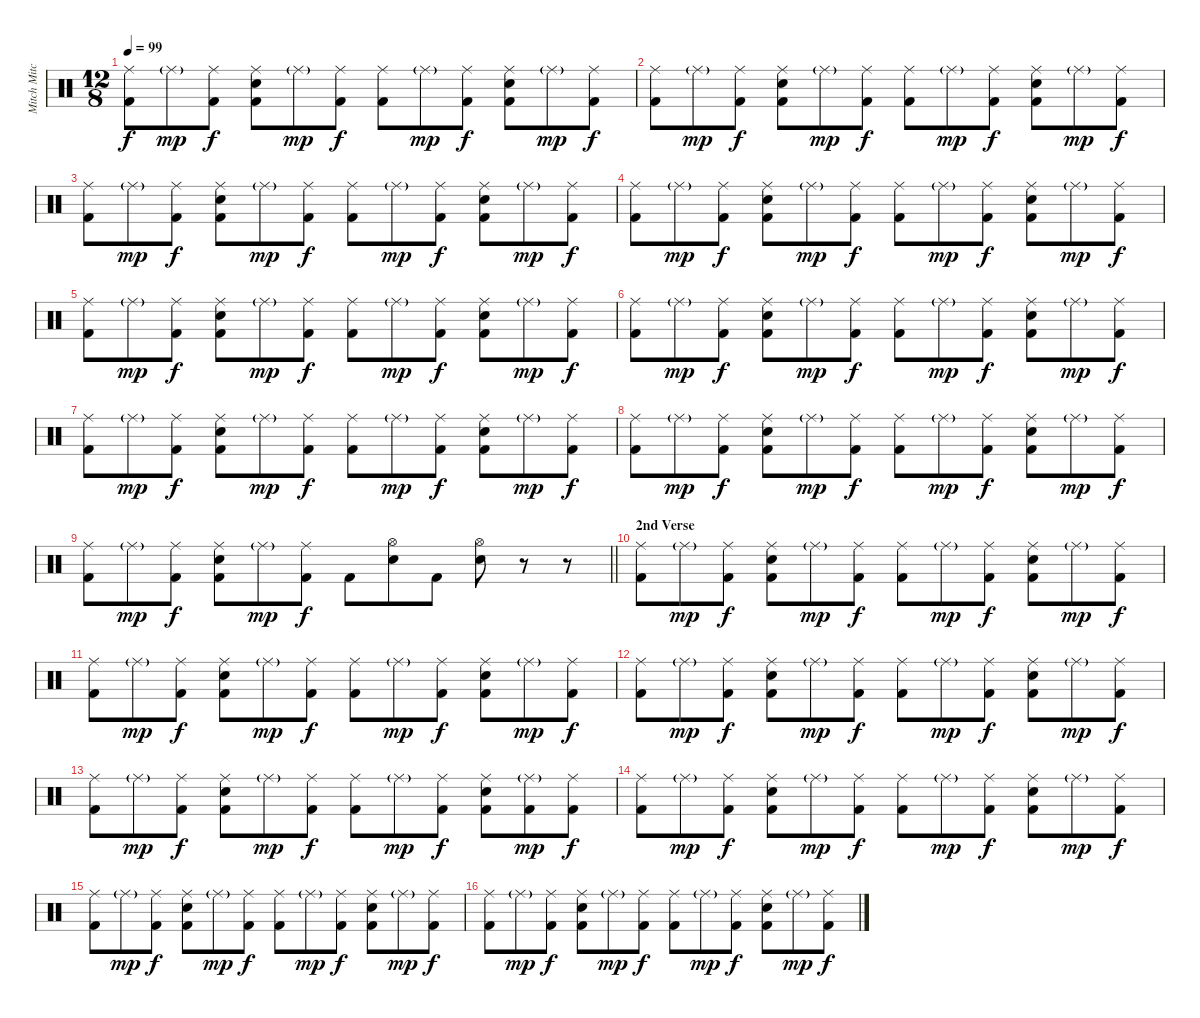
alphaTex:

\track ("Mitch Mitchell" "Mitch Mitc") {instrument percussion}
\staff {score}
\articulation defaults
\ts (12 8)
\tempo 99
\clef neutral
\ks c
("Ride (middle)" "Kick (hit) 2").8{dy f} "Ride (middle)"{g}.8{dy mp} ("Ride (middle)" "Kick (hit) 2").8{dy f} ("Ride (middle)" "Electric Snare (hit)" "Kick (hit) 2").8 "Ride (middle)"{g}.8{dy mp} ("Ride (middle)" "Kick (hit) 2").8{dy f} ("Ride (middle)" "Kick (hit) 2").8 "Ride (middle)"{g}.8{dy mp} ("Ride (middle)" "Kick (hit) 2").8{dy f} ("Ride (middle)" "Electric Snare (hit)" "Kick (hit) 2").8 "Ride (middle)"{g}.8{dy mp} ("Ride (middle)" "Kick (hit) 2").8{dy f} |
("Ride (middle)" "Kick (hit) 2").8 "Ride (middle)"{g}.8{dy mp} ("Ride (middle)" "Kick (hit) 2").8{dy f} ("Ride (middle)" "Electric Snare (hit)" "Kick (hit) 2").8 "Ride (middle)"{g}.8{dy mp} ("Ride (middle)" "Kick (hit) 2").8{dy f} ("Ride (middle)" "Kick (hit) 2").8 "Ride (middle)"{g}.8{dy mp} ("Ride (middle)" "Kick (hit) 2").8{dy f} ("Ride (middle)" "Electric Snare (hit)" "Kick (hit) 2").8 "Ride (middle)"{g}.8{dy mp} ("Ride (middle)" "Kick (hit) 2").8{dy f} |
("Ride (middle)" "Kick (hit) 2").8 "Ride (middle)"{g}.8{dy mp} ("Ride (middle)" "Kick (hit) 2").8{dy f} ("Ride (middle)" "Electric Snare (hit)" "Kick (hit) 2").8 "Ride (middle)"{g}.8{dy mp} ("Ride (middle)" "Kick (hit) 2").8{dy f} ("Ride (middle)" "Kick (hit) 2").8 "Ride (middle)"{g}.8{dy mp} ("Ride (middle)" "Kick (hit) 2").8{dy f} ("Ride (middle)" "Electric Snare (hit)" "Kick (hit) 2").8 "Ride (middle)"{g}.8{dy mp} ("Ride (middle)" "Kick (hit) 2").8{dy f} |
("Ride (middle)" "Kick (hit) 2").8 "Ride (middle)"{g}.8{dy mp} ("Ride (middle)" "Kick (hit) 2").8{dy f} ("Ride (middle)" "Electric Snare (hit)" "Kick (hit) 2").8 "Ride (middle)"{g}.8{dy mp} ("Ride (middle)" "Kick (hit) 2").8{dy f} ("Ride (middle)" "Kick (hit) 2").8 "Ride (middle)"{g}.8{dy mp} ("Ride (middle)" "Kick (hit) 2").8{dy f} ("Ride (middle)" "Electric Snare (hit)" "Kick (hit) 2").8 "Ride (middle)"{g}.8{dy mp} ("Ride (middle)" "Kick (hit) 2").8{dy f} |
("Ride (middle)" "Kick (hit) 2").8 "Ride (middle)"{g}.8{dy mp} ("Ride (middle)" "Kick (hit) 2").8{dy f} ("Ride (middle)" "Electric Snare (hit)" "Kick (hit) 2").8 "Ride (middle)"{g}.8{dy mp} ("Ride (middle)" "Kick (hit) 2").8{dy f} ("Ride (middle)" "Kick (hit) 2").8 "Ride (middle)"{g}.8{dy mp} ("Ride (middle)" "Kick (hit) 2").8{dy f} ("Ride (middle)" "Electric Snare (hit)" "Kick (hit) 2").8 "Ride (middle)"{g}.8{dy mp} ("Ride (middle)" "Kick (hit) 2").8{dy f} |
("Ride (middle)" "Kick (hit) 2").8 "Ride (middle)"{g}.8{dy mp} ("Ride (middle)" "Kick (hit) 2").8{dy f} ("Ride (middle)" "Electric Snare (hit)" "Kick (hit) 2").8 "Ride (middle)"{g}.8{dy mp} ("Ride (middle)" "Kick (hit) 2").8{dy f} ("Ride (middle)" "Kick (hit) 2").8 "Ride (middle)"{g}.8{dy mp} ("Ride (middle)" "Kick (hit) 2").8{dy f} ("Ride (middle)" "Electric Snare (hit)" "Kick (hit) 2").8 "Ride (middle)"{g}.8{dy mp} ("Ride (middle)" "Kick (hit) 2").8{dy f} |
("Ride (middle)" "Kick (hit) 2").8 "Ride (middle)"{g}.8{dy mp} ("Ride (middle)" "Kick (hit) 2").8{dy f} ("Ride (middle)" "Electric Snare (hit)" "Kick (hit) 2").8 "Ride (middle)"{g}.8{dy mp} ("Ride (middle)" "Kick (hit) 2").8{dy f} ("Ride (middle)" "Kick (hit) 2").8 "Ride (middle)"{g}.8{dy mp} ("Ride (middle)" "Kick (hit) 2").8{dy f} ("Ride (middle)" "Electric Snare (hit)" "Kick (hit) 2").8 "Ride (middle)"{g}.8{dy mp} ("Ride (middle)" "Kick (hit) 2").8{dy f} |
("Ride (middle)" "Kick (hit) 2").8 "Ride (middle)"{g}.8{dy mp} ("Ride (middle)" "Kick (hit) 2").8{dy f} ("Ride (middle)" "Electric Snare (hit)" "Kick (hit) 2").8 "Ride (middle)"{g}.8{dy mp} ("Ride (middle)" "Kick (hit) 2").8{dy f} ("Ride (middle)" "Kick (hit) 2").8 "Ride (middle)"{g}.8{dy mp} ("Ride (middle)" "Kick (hit) 2").8{dy f} ("Ride (middle)" "Electric Snare (hit)" "Kick (hit) 2").8 "Ride (middle)"{g}.8{dy mp} ("Ride (middle)" "Kick (hit) 2").8{dy f} |
\barLineRight lightlight
("Ride (middle)" "Kick (hit) 2").8 "Ride (middle)"{g}.8{dy mp} ("Ride (middle)" "Kick (hit) 2").8{dy f} ("Ride (middle)" "Electric Snare (hit)" "Kick (hit) 2").8 "Ride (middle)"{g}.8{dy mp} ("Ride (middle)" "Kick (hit) 2").8{dy f} "Kick (hit) 2".8 ("Hi-Hat (open)" "Electric Snare (hit)").8 "Kick (hit) 2".8 ("Hi-Hat (open)" "Electric Snare (hit)").8 r.8 r.8 |
\section ("" "2nd Verse")
("Ride (middle)" "Kick (hit) 2").8 "Ride (middle)"{g}.8{dy mp} ("Ride (middle)" "Kick (hit) 2").8{dy f} ("Ride (middle)" "Electric Snare (hit)" "Kick (hit) 2").8 "Ride (middle)"{g}.8{dy mp} ("Ride (middle)" "Kick (hit) 2").8{dy f} ("Ride (middle)" "Kick (hit) 2").8 "Ride (middle)"{g}.8{dy mp} ("Ride (middle)" "Kick (hit) 2").8{dy f} ("Ride (middle)" "Electric Snare (hit)" "Kick (hit) 2").8 "Ride (middle)"{g}.8{dy mp} ("Ride (middle)" "Kick (hit) 2").8{dy f} |
("Ride (middle)" "Kick (hit) 2").8 "Ride (middle)"{g}.8{dy mp} ("Ride (middle)" "Kick (hit) 2").8{dy f} ("Ride (middle)" "Electric Snare (hit)" "Kick (hit) 2").8 "Ride (middle)"{g}.8{dy mp} ("Ride (middle)" "Kick (hit) 2").8{dy f} ("Ride (middle)" "Kick (hit) 2").8 "Ride (middle)"{g}.8{dy mp} ("Ride (middle)" "Kick (hit) 2").8{dy f} ("Ride (middle)" "Electric Snare (hit)" "Kick (hit) 2").8 "Ride (middle)"{g}.8{dy mp} ("Ride (middle)" "Kick (hit) 2").8{dy f} |
("Ride (middle)" "Kick (hit) 2").8 "Ride (middle)"{g}.8{dy mp} ("Ride (middle)" "Kick (hit) 2").8{dy f} ("Ride (middle)" "Electric Snare (hit)" "Kick (hit) 2").8 "Ride (middle)"{g}.8{dy mp} ("Ride (middle)" "Kick (hit) 2").8{dy f} ("Ride (middle)" "Kick (hit) 2").8 "Ride (middle)"{g}.8{dy mp} ("Ride (middle)" "Kick (hit) 2").8{dy f} ("Ride (middle)" "Electric Snare (hit)" "Kick (hit) 2").8 "Ride (middle)"{g}.8{dy mp} ("Ride (middle)" "Kick (hit) 2").8{dy f} |
("Ride (middle)" "Kick (hit) 2").8 "Ride (middle)"{g}.8{dy mp} ("Ride (middle)" "Kick (hit) 2").8{dy f} ("Ride (middle)" "Electric Snare (hit)" "Kick (hit) 2").8 "Ride (middle)"{g}.8{dy mp} ("Ride (middle)" "Kick (hit) 2").8{dy f} ("Ride (middle)" "Kick (hit) 2").8 "Ride (middle)"{g}.8{dy mp} ("Ride (middle)" "Kick (hit) 2").8{dy f} ("Ride (middle)" "Electric Snare (hit)" "Kick (hit) 2").8 ("Ride (middle)"{g} "Kick (hit) 2").8{dy mp} ("Ride (middle)" "Kick (hit) 2").8{dy f} |
("Ride (middle)" "Kick (hit) 2").8 "Ride (middle)"{g}.8{dy mp} ("Ride (middle)" "Kick (hit) 2").8{dy f} ("Ride (middle)" "Electric Snare (hit)" "Kick (hit) 2").8 "Ride (middle)"{g}.8{dy mp} ("Ride (middle)" "Kick (hit) 2").8{dy f} ("Ride (middle)" "Kick (hit) 2").8 "Ride (middle)"{g}.8{dy mp} ("Ride (middle)" "Kick (hit) 2").8{dy f} ("Ride (middle)" "Electric Snare (hit)" "Kick (hit) 2").8 "Ride (middle)"{g}.8{dy mp} ("Ride (middle)" "Kick (hit) 2").8{dy f} |
("Ride (middle)" "Kick (hit) 2").8 "Ride (middle)"{g}.8{dy mp} ("Ride (middle)" "Kick (hit) 2").8{dy f} ("Ride (middle)" "Electric Snare (hit)" "Kick (hit) 2").8 "Ride (middle)"{g}.8{dy mp} ("Ride (middle)" "Kick (hit) 2").8{dy f} ("Ride (middle)" "Kick (hit) 2").8 "Ride (middle)"{g}.8{dy mp} ("Ride (middle)" "Kick (hit) 2").8{dy f} ("Ride (middle)" "Electric Snare (hit)" "Kick (hit) 2").8 "Ride (middle)"{g}.8{dy mp} ("Ride (middle)" "Kick (hit) 2").8{dy f} |
("Ride (middle)" "Kick (hit) 2").8 "Ride (middle)"{g}.8{dy mp} ("Ride (middle)" "Kick (hit) 2").8{dy f} ("Ride (middle)" "Electric Snare (hit)" "Kick (hit) 2").8 "Ride (middle)"{g}.8{dy mp} ("Ride (middle)" "Kick (hit) 2").8{dy f} ("Ride (middle)" "Kick (hit) 2").8 "Ride (middle)"{g}.8{dy mp} ("Ride (middle)" "Kick (hit) 2").8{dy f} ("Ride (middle)" "Electric Snare (hit)" "Kick (hit) 2").8 "Ride (middle)"{g}.8{dy mp} ("Ride (middle)" "Kick (hit) 2").8{dy f}
